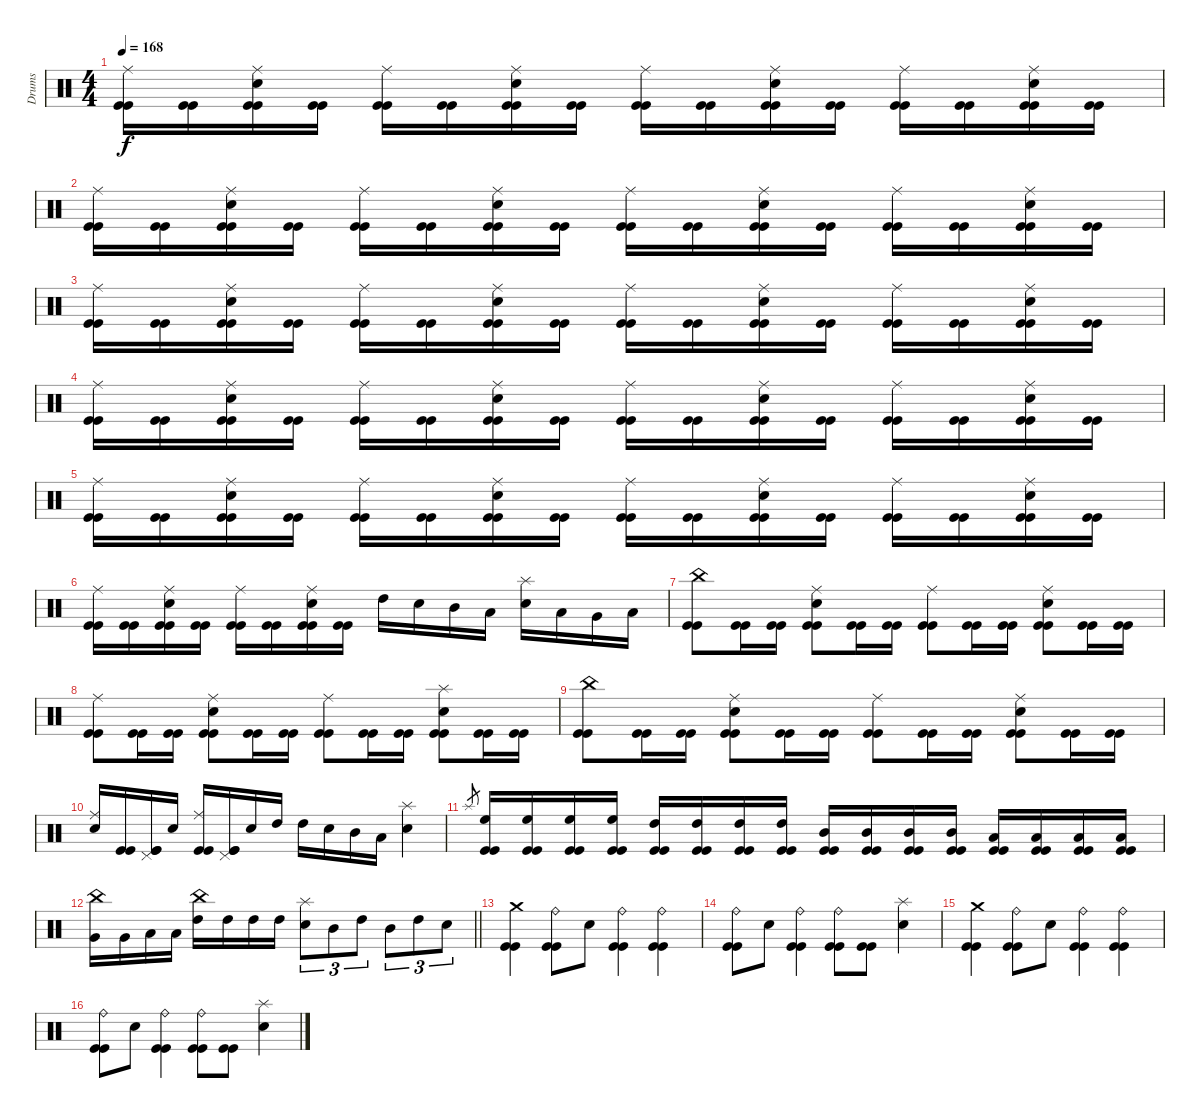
\track ("Drums" "Drums") {instrument percussion}
\staff {score}
\articulation defaults
\ts (4 4)
\tempo 168
\clef neutral
\ks c
("Ride (middle)" "Kick (hit)" "Kick (hit)").16{dy f} ("Kick (hit)" "Kick (hit)").16 ("Ride (middle)" "Electric Snare (hit)" "Kick (hit)" "Kick (hit)").16 ("Kick (hit)" "Kick (hit)").16 ("Ride (middle)" "Kick (hit)" "Kick (hit)").16 ("Kick (hit)" "Kick (hit)").16 ("Ride (middle)" "Electric Snare (hit)" "Kick (hit)" "Kick (hit)").16 ("Kick (hit)" "Kick (hit)").16 ("Ride (middle)" "Kick (hit)" "Kick (hit)").16 ("Kick (hit)" "Kick (hit)").16 ("Ride (middle)" "Electric Snare (hit)" "Kick (hit)" "Kick (hit)").16 ("Kick (hit)" "Kick (hit)").16 ("Ride (middle)" "Kick (hit)" "Kick (hit)").16 ("Kick (hit)" "Kick (hit)").16 ("Ride (middle)" "Electric Snare (hit)" "Kick (hit)" "Kick (hit)").16 ("Kick (hit)" "Kick (hit)").16 |
("Ride (middle)" "Kick (hit)" "Kick (hit)").16 ("Kick (hit)" "Kick (hit)").16 ("Ride (middle)" "Electric Snare (hit)" "Kick (hit)" "Kick (hit)").16 ("Kick (hit)" "Kick (hit)").16 ("Ride (middle)" "Kick (hit)" "Kick (hit)").16 ("Kick (hit)" "Kick (hit)").16 ("Ride (middle)" "Electric Snare (hit)" "Kick (hit)" "Kick (hit)").16 ("Kick (hit)" "Kick (hit)").16 ("Ride (middle)" "Kick (hit)" "Kick (hit)").16 ("Kick (hit)" "Kick (hit)").16 ("Ride (middle)" "Electric Snare (hit)" "Kick (hit)" "Kick (hit)").16 ("Kick (hit)" "Kick (hit)").16 ("Ride (middle)" "Kick (hit)" "Kick (hit)").16 ("Kick (hit)" "Kick (hit)").16 ("Ride (middle)" "Electric Snare (hit)" "Kick (hit)" "Kick (hit)").16 ("Kick (hit)" "Kick (hit)").16 |
("Ride (middle)" "Kick (hit)" "Kick (hit)").16 ("Kick (hit)" "Kick (hit)").16 ("Ride (middle)" "Electric Snare (hit)" "Kick (hit)" "Kick (hit)").16 ("Kick (hit)" "Kick (hit)").16 ("Ride (middle)" "Kick (hit)" "Kick (hit)").16 ("Kick (hit)" "Kick (hit)").16 ("Ride (middle)" "Electric Snare (hit)" "Kick (hit)" "Kick (hit)").16 ("Kick (hit)" "Kick (hit)").16 ("Ride (middle)" "Kick (hit)" "Kick (hit)").16 ("Kick (hit)" "Kick (hit)").16 ("Ride (middle)" "Electric Snare (hit)" "Kick (hit)" "Kick (hit)").16 ("Kick (hit)" "Kick (hit)").16 ("Ride (middle)" "Kick (hit)" "Kick (hit)").16 ("Kick (hit)" "Kick (hit)").16 ("Ride (middle)" "Electric Snare (hit)" "Kick (hit)" "Kick (hit)").16 ("Kick (hit)" "Kick (hit)").16 |
("Ride (middle)" "Kick (hit)" "Kick (hit)").16 ("Kick (hit)" "Kick (hit)").16 ("Ride (middle)" "Electric Snare (hit)" "Kick (hit)" "Kick (hit)").16 ("Kick (hit)" "Kick (hit)").16 ("Ride (middle)" "Kick (hit)" "Kick (hit)").16 ("Kick (hit)" "Kick (hit)").16 ("Ride (middle)" "Electric Snare (hit)" "Kick (hit)" "Kick (hit)").16 ("Kick (hit)" "Kick (hit)").16 ("Ride (middle)" "Kick (hit)" "Kick (hit)").16 ("Kick (hit)" "Kick (hit)").16 ("Ride (middle)" "Electric Snare (hit)" "Kick (hit)" "Kick (hit)").16 ("Kick (hit)" "Kick (hit)").16 ("Ride (middle)" "Kick (hit)" "Kick (hit)").16 ("Kick (hit)" "Kick (hit)").16 ("Ride (middle)" "Electric Snare (hit)" "Kick (hit)" "Kick (hit)").16 ("Kick (hit)" "Kick (hit)").16 |
("Ride (middle)" "Kick (hit)" "Kick (hit)").16 ("Kick (hit)" "Kick (hit)").16 ("Ride (middle)" "Electric Snare (hit)" "Kick (hit)" "Kick (hit)").16 ("Kick (hit)" "Kick (hit)").16 ("Ride (middle)" "Kick (hit)" "Kick (hit)").16 ("Kick (hit)" "Kick (hit)").16 ("Ride (middle)" "Electric Snare (hit)" "Kick (hit)" "Kick (hit)").16 ("Kick (hit)" "Kick (hit)").16 ("Ride (middle)" "Kick (hit)" "Kick (hit)").16 ("Kick (hit)" "Kick (hit)").16 ("Ride (middle)" "Electric Snare (hit)" "Kick (hit)" "Kick (hit)").16 ("Kick (hit)" "Kick (hit)").16 ("Ride (middle)" "Kick (hit)" "Kick (hit)").16 ("Kick (hit)" "Kick (hit)").16 ("Ride (middle)" "Electric Snare (hit)" "Kick (hit)" "Kick (hit)").16 ("Kick (hit)" "Kick (hit)").16 |
("Ride (middle)" "Kick (hit)" "Kick (hit)").16 ("Kick (hit)" "Kick (hit)").16 ("Ride (middle)" "Electric Snare (hit)" "Kick (hit)" "Kick (hit)").16 ("Kick (hit)" "Kick (hit)").16 ("Ride (middle)" "Kick (hit)" "Kick (hit)").16 ("Kick (hit)" "Kick (hit)").16 ("Ride (middle)" "Electric Snare (hit)" "Kick (hit)" "Kick (hit)").16 ("Kick (hit)" "Kick (hit)").16 "High Tom (hit)".16 "Electric Snare (hit)".16 "Mid Tom (hit)".16 "Low Tom (hit)".16 ("Splash (hit)" "Electric Snare (hit)").16 "Low Tom (hit)".16 "Very Low Tom (hit)".16 "Low Floor Tom (hit)".16 |
("China (hit)" "Kick (hit)" "Kick (hit)").8 ("Kick (hit)" "Kick (hit)").16 ("Kick (hit)" "Kick (hit)").16 ("Ride (middle)" "Electric Snare (hit)" "Kick (hit)" "Kick (hit)").8 ("Kick (hit)" "Kick (hit)").16 ("Kick (hit)" "Kick (hit)").16 ("Ride (middle)" "Kick (hit)" "Kick (hit)").8 ("Kick (hit)" "Kick (hit)").16 ("Kick (hit)" "Kick (hit)").16 ("Ride (middle)" "Electric Snare (hit)" "Kick (hit)" "Kick (hit)").8 ("Kick (hit)" "Kick (hit)").16 ("Kick (hit)" "Kick (hit)").16 |
("Ride (middle)" "Kick (hit)" "Kick (hit)").8 ("Kick (hit)" "Kick (hit)").16 ("Kick (hit)" "Kick (hit)").16 ("Ride (middle)" "Electric Snare (hit)" "Kick (hit)" "Kick (hit)").8 ("Kick (hit)" "Kick (hit)").16 ("Kick (hit)" "Kick (hit)").16 ("Ride (middle)" "Kick (hit)" "Kick (hit)").8 ("Kick (hit)" "Kick (hit)").16 ("Kick (hit)" "Kick (hit)").16 ("Splash (hit)" "Electric Snare (hit)" "Kick (hit)" "Kick (hit)").8 ("Kick (hit)" "Kick (hit)").16 ("Kick (hit)" "Kick (hit)").16 |
("China (hit)" "Kick (hit)" "Kick (hit)").8 ("Kick (hit)" "Kick (hit)").16 ("Kick (hit)" "Kick (hit)").16 ("Ride (middle)" "Electric Snare (hit)" "Kick (hit)" "Kick (hit)").8 ("Kick (hit)" "Kick (hit)").16 ("Kick (hit)" "Kick (hit)").16 ("Ride (middle)" "Kick (hit)" "Kick (hit)").8 ("Kick (hit)" "Kick (hit)").16 ("Kick (hit)" "Kick (hit)").16 ("Ride (middle)" "Electric Snare (hit)" "Kick (hit)" "Kick (hit)").8 ("Kick (hit)" "Kick (hit)").16 ("Kick (hit)" "Kick (hit)").16 |
("Ride (middle)" "Electric Snare (hit)").16 ("Kick (hit)" "Kick (hit)").16 ("Pedal Hi-Hat (hit)" "Kick (hit)" "Kick (hit)").16 "Electric Snare (hit)".16 ("Ride (middle)" "Kick (hit)" "Kick (hit)").16 ("Pedal Hi-Hat (hit)" "Kick (hit)" "Kick (hit)").16 "Electric Snare (hit)".16 "High Tom (hit)".16 "High Tom (hit)".16 "Electric Snare (hit)".16 "Mid Tom (hit)".16 "Low Tom (hit)".16 ("Splash (hit)" "Electric Snare (hit)").4 |
"Splash (hit)".8{gr} ("High Floor Tom (hit)" "Kick (hit)" "Kick (hit)").16 ("High Floor Tom (hit)" "Kick (hit)" "Kick (hit)").16 ("High Floor Tom (hit)" "Kick (hit)" "Kick (hit)").16 ("High Floor Tom (hit)" "Kick (hit)" "Kick (hit)").16 ("High Tom (hit)" "Kick (hit)" "Kick (hit)").16 ("High Tom (hit)" "Kick (hit)" "Kick (hit)").16 ("High Tom (hit)" "Kick (hit)" "Kick (hit)").16 ("High Tom (hit)" "Kick (hit)" "Kick (hit)").16 ("Mid Tom (hit)" "Kick (hit)" "Kick (hit)").16 ("Mid Tom (hit)" "Kick (hit)" "Kick (hit)").16 ("Mid Tom (hit)" "Kick (hit)" "Kick (hit)").16 ("Mid Tom (hit)" "Kick (hit)" "Kick (hit)").16 ("Low Tom (hit)" "Kick (hit)" "Kick (hit)").16 ("Low Tom (hit)" "Kick (hit)" "Kick (hit)").16 ("Low Tom (hit)" "Kick (hit)" "Kick (hit)").16 ("Low Tom (hit)" "Kick (hit)" "Kick (hit)").16 |
\barLineRight lightlight
("China (hit)" "Very Low Tom (hit)").16 "Very Low Tom (hit)".16 "Low Tom (hit)".16 "Low Tom (hit)".16 ("China (hit)" "High Tom (hit)").16 "High Tom (hit)".16 "High Tom (hit)".16 "High Tom (hit)".16 ("Splash (hit)" "Electric Snare (hit)").8{tu (3 2)} "Mid Tom (hit)".8{tu (3 2)} "High Tom (hit)".8{tu (3 2)} "Mid Tom (hit)".8{tu (3 2)} "High Tom (hit)".8{tu (3 2)} "Electric Snare (hit)".8{tu (3 2)} |
\section ("" "")
("Crash medium (hit)" "Kick (hit)" "Kick (hit)").4 ("Ride (bell)" "Kick (hit)" "Kick (hit)").8 "Electric Snare (hit)".8 ("Ride (bell)" "Kick (hit)" "Kick (hit)").4 ("Ride (bell)" "Kick (hit)" "Kick (hit)").4 |
("Ride (bell)" "Kick (hit)" "Kick (hit)").8 "Electric Snare (hit)".8 ("Ride (bell)" "Kick (hit)" "Kick (hit)").4 ("Ride (bell)" "Kick (hit)" "Kick (hit)").8 ("Kick (hit)" "Kick (hit)").8 ("Splash (hit)" "Electric Snare (hit)").4 |
("Crash medium (hit)" "Kick (hit)" "Kick (hit)").4 ("Ride (bell)" "Kick (hit)" "Kick (hit)").8 "Electric Snare (hit)".8 ("Ride (bell)" "Kick (hit)" "Kick (hit)").4 ("Ride (bell)" "Kick (hit)" "Kick (hit)").4 |
("Ride (bell)" "Kick (hit)" "Kick (hit)").8 "Electric Snare (hit)".8 ("Ride (bell)" "Kick (hit)" "Kick (hit)").4 ("Ride (bell)" "Kick (hit)" "Kick (hit)").8 ("Kick (hit)" "Kick (hit)").8 ("Splash (hit)" "Electric Snare (hit)").4
